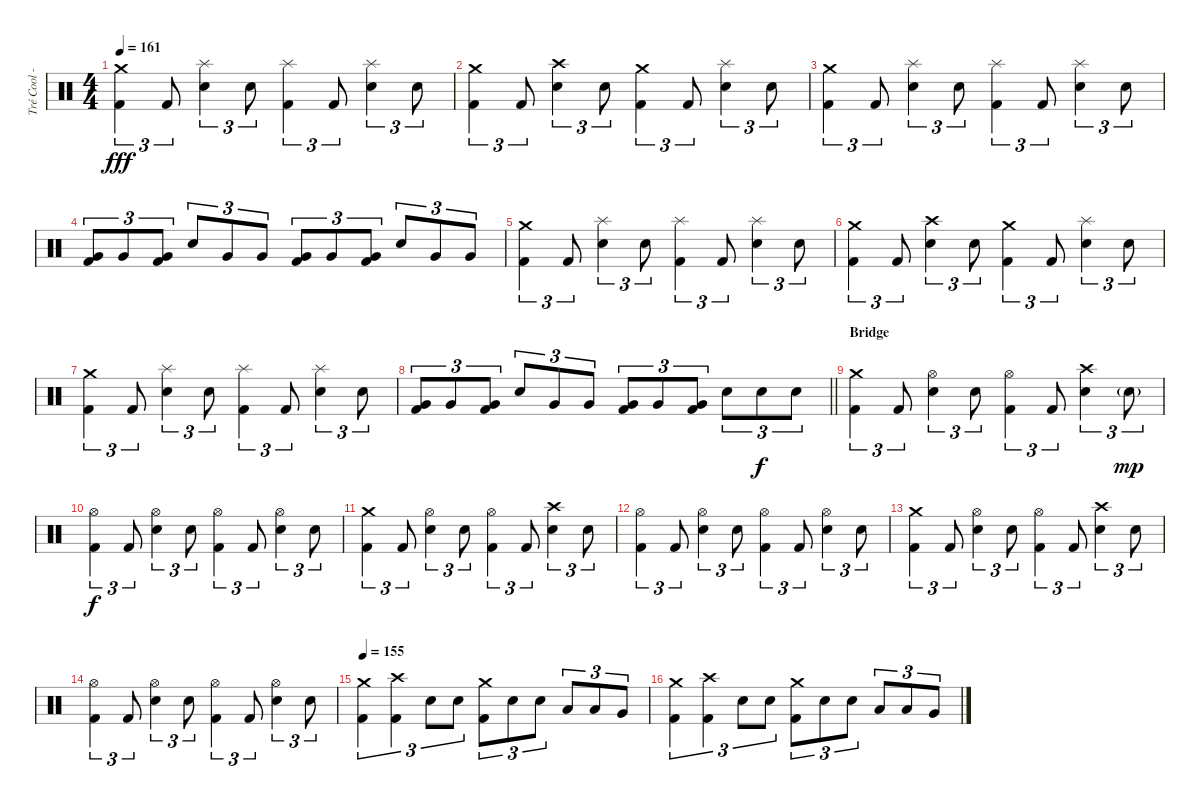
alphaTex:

\track ("Tré Cool - Drums" "Tré Cool -") {instrument percussion}
\staff {score}
\articulation defaults
\ts (4 4)
\tempo 161
\clef neutral
\ks c
("Crash medium (hit)" "Kick (hit) 2").4{tu (3 2) dy fff} "Kick (hit) 2".8{tu (3 2)} ("Splash (hit)" "Electric Snare (hit)").4{tu (3 2)} "Electric Snare (hit)".8{tu (3 2)} ("Splash (hit)" "Kick (hit) 2").4{tu (3 2)} "Kick (hit) 2".8{tu (3 2)} ("Splash (hit)" "Electric Snare (hit)").4{tu (3 2)} "Electric Snare (hit)".8{tu (3 2)} |
("Crash medium (hit)" "Kick (hit) 2").4{tu (3 2)} "Kick (hit) 2".8{tu (3 2)} ("Crash high (hit)" "Electric Snare (hit)").4{tu (3 2)} "Electric Snare (hit)".8{tu (3 2)} ("Crash medium (hit)" "Kick (hit) 2").4{tu (3 2)} "Kick (hit) 2".8{tu (3 2)} ("Splash (hit)" "Electric Snare (hit)").4{tu (3 2)} "Electric Snare (hit)".8{tu (3 2)} |
("Crash medium (hit)" "Kick (hit) 2").4{tu (3 2)} "Kick (hit) 2".8{tu (3 2)} ("Splash (hit)" "Electric Snare (hit)").4{tu (3 2)} "Electric Snare (hit)".8{tu (3 2)} ("Splash (hit)" "Kick (hit) 2").4{tu (3 2)} "Kick (hit) 2".8{tu (3 2)} ("Splash (hit)" "Electric Snare (hit)").4{tu (3 2)} "Electric Snare (hit)".8{tu (3 2)} |
("Very Low Tom (hit)" "Kick (hit) 2").8{tu (3 2)} "Very Low Tom (hit)".8{tu (3 2)} ("Very Low Tom (hit)" "Kick (hit) 2").8{tu (3 2)} "Electric Snare (hit)".8{tu (3 2)} "Very Low Tom (hit)".8{tu (3 2)} "Very Low Tom (hit)".8{tu (3 2)} ("Very Low Tom (hit)" "Kick (hit) 2").8{tu (3 2)} "Very Low Tom (hit)".8{tu (3 2)} ("Very Low Tom (hit)" "Kick (hit) 2").8{tu (3 2)} "Electric Snare (hit)".8{tu (3 2)} "Very Low Tom (hit)".8{tu (3 2)} "Very Low Tom (hit)".8{tu (3 2)} |
("Crash medium (hit)" "Kick (hit) 2").4{tu (3 2)} "Kick (hit) 2".8{tu (3 2)} ("Splash (hit)" "Electric Snare (hit)").4{tu (3 2)} "Electric Snare (hit)".8{tu (3 2)} ("Splash (hit)" "Kick (hit) 2").4{tu (3 2)} "Kick (hit) 2".8{tu (3 2)} ("Splash (hit)" "Electric Snare (hit)").4{tu (3 2)} "Electric Snare (hit)".8{tu (3 2)} |
("Crash medium (hit)" "Kick (hit) 2").4{tu (3 2)} "Kick (hit) 2".8{tu (3 2)} ("Crash high (hit)" "Electric Snare (hit)").4{tu (3 2)} "Electric Snare (hit)".8{tu (3 2)} ("Crash medium (hit)" "Kick (hit) 2").4{tu (3 2)} "Kick (hit) 2".8{tu (3 2)} ("Splash (hit)" "Electric Snare (hit)").4{tu (3 2)} "Electric Snare (hit)".8{tu (3 2)} |
("Crash medium (hit)" "Kick (hit) 2").4{tu (3 2)} "Kick (hit) 2".8{tu (3 2)} ("Splash (hit)" "Electric Snare (hit)").4{tu (3 2)} "Electric Snare (hit)".8{tu (3 2)} ("Splash (hit)" "Kick (hit) 2").4{tu (3 2)} "Kick (hit) 2".8{tu (3 2)} ("Splash (hit)" "Electric Snare (hit)").4{tu (3 2)} "Electric Snare (hit)".8{tu (3 2)} |
\barLineRight lightlight
("Very Low Tom (hit)" "Kick (hit) 2").8{tu (3 2)} "Very Low Tom (hit)".8{tu (3 2)} ("Very Low Tom (hit)" "Kick (hit) 2").8{tu (3 2)} "Electric Snare (hit)".8{tu (3 2)} "Very Low Tom (hit)".8{tu (3 2)} "Very Low Tom (hit)".8{tu (3 2)} ("Very Low Tom (hit)" "Kick (hit) 2").8{tu (3 2)} "Very Low Tom (hit)".8{tu (3 2)} ("Very Low Tom (hit)" "Kick (hit) 2").8{tu (3 2)} "Electric Snare (hit)".8{tu (3 2)} "Electric Snare (hit)".8{tu (3 2) dy f} "Electric Snare (hit)".8{tu (3 2)} |
\section ("" "Bridge")
("Crash medium (hit)" "Kick (hit) 2").4{tu (3 2)} "Kick (hit) 2".8{tu (3 2)} ("Hi-Hat (open)" "Electric Snare (hit)").4{tu (3 2)} "Electric Snare (hit)".8{tu (3 2)} ("Hi-Hat (open)" "Kick (hit) 2").4{tu (3 2)} "Kick (hit) 2".8{tu (3 2)} ("Crash high (hit)" "Electric Snare (hit)").4{tu (3 2)} "Electric Snare (hit)"{g}.8{tu (3 2) dy mp} |
("Hi-Hat (open)" "Kick (hit) 2").4{tu (3 2) dy f} "Kick (hit) 2".8{tu (3 2)} ("Hi-Hat (open)" "Electric Snare (hit)").4{tu (3 2)} "Electric Snare (hit)".8{tu (3 2)} ("Hi-Hat (open)" "Kick (hit) 2").4{tu (3 2)} "Kick (hit) 2".8{tu (3 2)} ("Hi-Hat (open)" "Electric Snare (hit)").4{tu (3 2)} "Electric Snare (hit)".8{tu (3 2)} |
("Crash medium (hit)" "Kick (hit) 2").4{tu (3 2)} "Kick (hit) 2".8{tu (3 2)} ("Hi-Hat (open)" "Electric Snare (hit)").4{tu (3 2)} "Electric Snare (hit)".8{tu (3 2)} ("Hi-Hat (open)" "Kick (hit) 2").4{tu (3 2)} "Kick (hit) 2".8{tu (3 2)} ("Crash high (hit)" "Electric Snare (hit)").4{tu (3 2)} "Electric Snare (hit)".8{tu (3 2)} |
("Hi-Hat (open)" "Kick (hit) 2").4{tu (3 2)} "Kick (hit) 2".8{tu (3 2)} ("Hi-Hat (open)" "Electric Snare (hit)").4{tu (3 2)} "Electric Snare (hit)".8{tu (3 2)} ("Hi-Hat (open)" "Kick (hit) 2").4{tu (3 2)} "Kick (hit) 2".8{tu (3 2)} ("Hi-Hat (open)" "Electric Snare (hit)").4{tu (3 2)} "Electric Snare (hit)".8{tu (3 2)} |
("Crash medium (hit)" "Kick (hit) 2").4{tu (3 2)} "Kick (hit) 2".8{tu (3 2)} ("Hi-Hat (open)" "Electric Snare (hit)").4{tu (3 2)} "Electric Snare (hit)".8{tu (3 2)} ("Hi-Hat (open)" "Kick (hit) 2").4{tu (3 2)} "Kick (hit) 2".8{tu (3 2)} ("Crash high (hit)" "Electric Snare (hit)").4{tu (3 2)} "Electric Snare (hit)".8{tu (3 2)} |
("Hi-Hat (open)" "Kick (hit) 2").4{tu (3 2)} "Kick (hit) 2".8{tu (3 2)} ("Hi-Hat (open)" "Electric Snare (hit)").4{tu (3 2)} "Electric Snare (hit)".8{tu (3 2)} ("Hi-Hat (open)" "Kick (hit) 2").4{tu (3 2)} "Kick (hit) 2".8{tu (3 2)} ("Hi-Hat (open)" "Electric Snare (hit)").4{tu (3 2)} "Electric Snare (hit)".8{tu (3 2)} |
\tempo 155
("Crash medium (hit)" "Kick (hit) 2").4{tu (3 2)} ("Crash high (hit)" "Kick (hit) 2").4{tu (3 2)} "Electric Snare (hit)".8{tu (3 2)} "Electric Snare (hit)".8{tu (3 2)} ("Crash medium (hit)" "Kick (hit) 2").8{tu (3 2)} "Electric Snare (hit)".8{tu (3 2)} "Electric Snare (hit)".8{tu (3 2)} "Low Tom (hit)".8{tu (3 2)} "Low Tom (hit)".8{tu (3 2)} "Very Low Tom (hit)".8{tu (3 2)} |
("Crash medium (hit)" "Kick (hit) 2").4{tu (3 2)} ("Crash high (hit)" "Kick (hit) 2").4{tu (3 2)} "Electric Snare (hit)".8{tu (3 2)} "Electric Snare (hit)".8{tu (3 2)} ("Crash medium (hit)" "Kick (hit) 2").8{tu (3 2)} "Electric Snare (hit)".8{tu (3 2)} "Electric Snare (hit)".8{tu (3 2)} "Low Tom (hit)".8{tu (3 2)} "Low Tom (hit)".8{tu (3 2)} "Very Low Tom (hit)".8{tu (3 2)}
